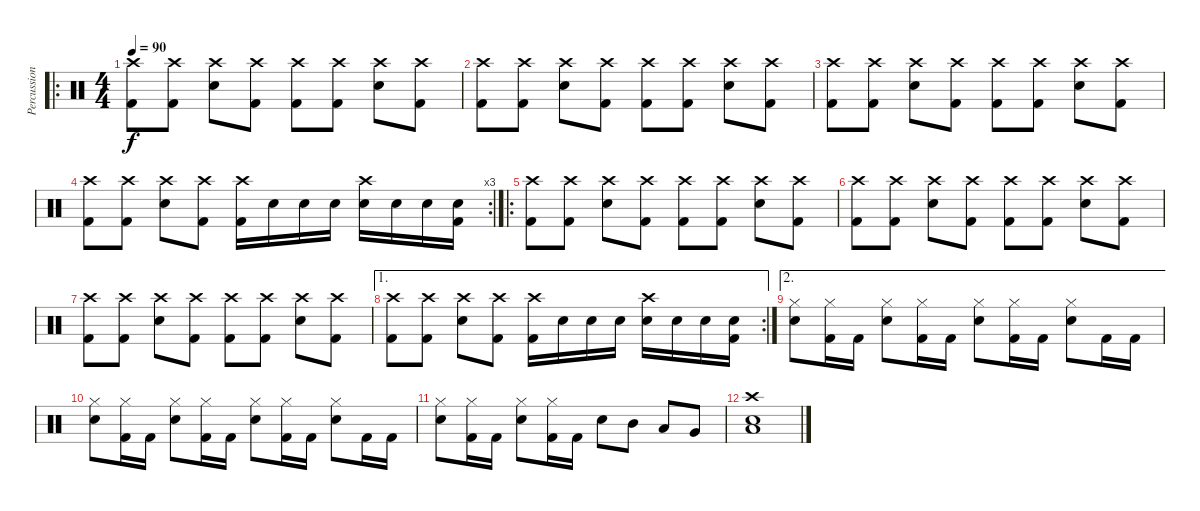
\track ("Percussions" "Percussion") {instrument percussion}
\staff {score}
\articulation defaults
\ro
\ts (4 4)
\tempo 90
\clef neutral
\ks c
("Kick (hit) 2" "Crash high (hit)").8{dy f} ("Kick (hit) 2" "Crash high (hit)").8 ("Snare (hit) 2" "Crash high (hit)").8 ("Kick (hit) 2" "Crash high (hit)").8 ("Kick (hit) 2" "Crash high (hit)").8 ("Kick (hit) 2" "Crash high (hit)").8 ("Snare (hit) 2" "Crash high (hit)").8 ("Kick (hit) 2" "Crash high (hit)").8 |
("Kick (hit) 2" "Crash high (hit)").8 ("Kick (hit) 2" "Crash high (hit)").8 ("Snare (hit) 2" "Crash high (hit)").8 ("Kick (hit) 2" "Crash high (hit)").8 ("Kick (hit) 2" "Crash high (hit)").8 ("Kick (hit) 2" "Crash high (hit)").8 ("Snare (hit) 2" "Crash high (hit)").8 ("Kick (hit) 2" "Crash high (hit)").8 |
("Kick (hit) 2" "Crash high (hit)").8 ("Kick (hit) 2" "Crash high (hit)").8 ("Snare (hit) 2" "Crash high (hit)").8 ("Kick (hit) 2" "Crash high (hit)").8 ("Kick (hit) 2" "Crash high (hit)").8 ("Kick (hit) 2" "Crash high (hit)").8 ("Snare (hit) 2" "Crash high (hit)").8 ("Kick (hit) 2" "Crash high (hit)").8 |
\rc 3
("Kick (hit) 2" "Crash high (hit)").8 ("Kick (hit) 2" "Crash high (hit)").8 ("Snare (hit) 2" "Crash high (hit)").8 ("Kick (hit) 2" "Crash high (hit)").8 ("Kick (hit) 2" "Crash high (hit)").16 "Snare (hit) 2".16 "Snare (hit) 2".16 "Snare (hit) 2".16 ("Snare (hit) 2" "Crash high (hit)").16 "Snare (hit) 2".16 "Snare (hit) 2".16 ("Kick (hit) 2" "Snare (hit) 2").16 |
\ro
("Kick (hit) 2" "Crash high (hit)").8 ("Kick (hit) 2" "Crash high (hit)").8 ("Snare (hit) 2" "Crash high (hit)").8 ("Kick (hit) 2" "Crash high (hit)").8 ("Kick (hit) 2" "Crash high (hit)").8 ("Kick (hit) 2" "Crash high (hit)").8 ("Snare (hit) 2" "Crash high (hit)").8 ("Kick (hit) 2" "Crash high (hit)").8 |
("Kick (hit) 2" "Crash high (hit)").8 ("Kick (hit) 2" "Crash high (hit)").8 ("Snare (hit) 2" "Crash high (hit)").8 ("Kick (hit) 2" "Crash high (hit)").8 ("Kick (hit) 2" "Crash high (hit)").8 ("Kick (hit) 2" "Crash high (hit)").8 ("Snare (hit) 2" "Crash high (hit)").8 ("Kick (hit) 2" "Crash high (hit)").8 |
("Kick (hit) 2" "Crash high (hit)").8 ("Kick (hit) 2" "Crash high (hit)").8 ("Snare (hit) 2" "Crash high (hit)").8 ("Kick (hit) 2" "Crash high (hit)").8 ("Kick (hit) 2" "Crash high (hit)").8 ("Kick (hit) 2" "Crash high (hit)").8 ("Snare (hit) 2" "Crash high (hit)").8 ("Kick (hit) 2" "Crash high (hit)").8 |
\ae 1
\rc 2
("Kick (hit) 2" "Crash high (hit)").8 ("Kick (hit) 2" "Crash high (hit)").8 ("Snare (hit) 2" "Crash high (hit)").8 ("Kick (hit) 2" "Crash high (hit)").8 ("Kick (hit) 2" "Crash high (hit)").16 "Snare (hit) 2".16 "Snare (hit) 2".16 "Snare (hit) 2".16 ("Snare (hit) 2" "Crash high (hit)").16 "Snare (hit) 2".16 "Snare (hit) 2".16 ("Kick (hit) 2" "Snare (hit) 2").16 |
\ae 2
("Snare (hit) 2" "Hi-Hat (closed)").8 ("Kick (hit) 2" "Hi-Hat (closed)").16 "Kick (hit) 2".16 ("Snare (hit) 2" "Hi-Hat (closed)").8 ("Kick (hit) 2" "Hi-Hat (closed)").16 "Kick (hit) 2".16 ("Snare (hit) 2" "Hi-Hat (closed)").8 ("Kick (hit) 2" "Hi-Hat (closed)").16 "Kick (hit) 2".16 ("Snare (hit) 2" "Hi-Hat (closed)").8 "Kick (hit) 2".16 "Kick (hit) 2".16 |
("Snare (hit) 2" "Hi-Hat (closed)").8 ("Kick (hit) 2" "Hi-Hat (closed)").16 "Kick (hit) 2".16 ("Snare (hit) 2" "Hi-Hat (closed)").8 ("Kick (hit) 2" "Hi-Hat (closed)").16 "Kick (hit) 2".16 ("Snare (hit) 2" "Hi-Hat (closed)").8 ("Kick (hit) 2" "Hi-Hat (closed)").16 "Kick (hit) 2".16 ("Snare (hit) 2" "Hi-Hat (closed)").8 "Kick (hit) 2".16 "Kick (hit) 2".16 |
("Snare (hit) 2" "Hi-Hat (closed)").8 ("Kick (hit) 2" "Hi-Hat (closed)").16 "Kick (hit) 2".16 ("Snare (hit) 2" "Hi-Hat (closed)").8 ("Kick (hit) 2" "Hi-Hat (closed)").16 "Kick (hit) 2".16 "Snare (hit) 2".8 "Mid Tom (hit)".8 "Low Tom (hit)".8 "Very Low Tom (hit)".8 |
("Low Floor Tom (hit)" "Snare (hit) 2" "Crash high (hit)").1
